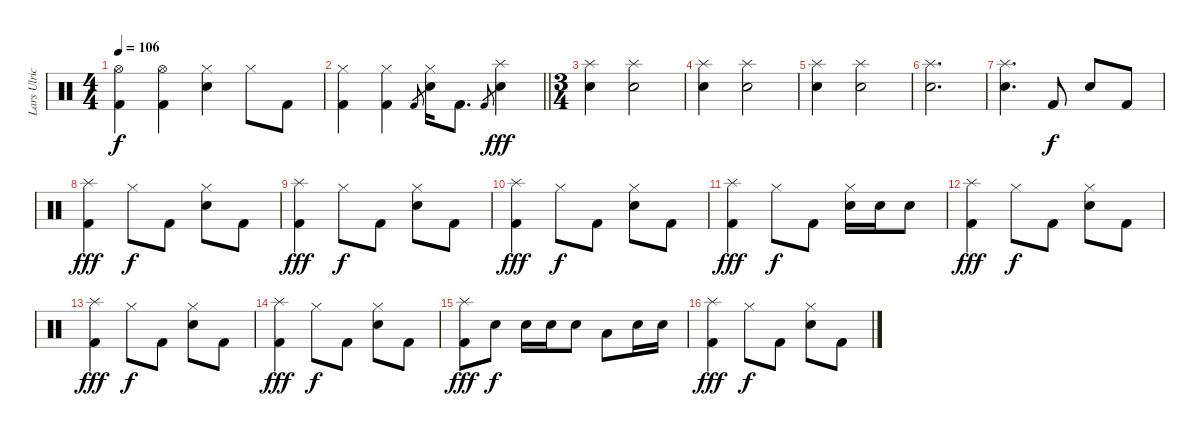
\track ("Lars Ulrich" "Lars Ulric") {instrument percussion}
\staff {score}
\articulation defaults
\ts (4 4)
\tempo 106
\clef neutral
\ks c
("Hi-Hat (open)" "Kick (hit) 2").4{dy f} ("Hi-Hat (open)" "Kick (hit) 2").4 ("Hi-Hat (closed)" "Electric Snare (hit)").4 "Hi-Hat (closed)".8 "Kick (hit) 2".8 |
\barLineRight lightlight
("Hi-Hat (closed)" "Kick (hit) 2").4 ("Hi-Hat (closed)" "Kick (hit) 2").4 "Kick (hit) 2".8{gr} ("Hi-Hat (closed)" "Electric Snare (hit)").16 "Kick (hit) 2".8{d} "Kick (hit) 2".8{gr} ("Splash (hit)" "Electric Snare (hit)").4{dy fff} |
\ts (3 4)
("Splash (hit)" "Electric Snare (hit)").4 ("Splash (hit)" "Electric Snare (hit)").2 |
("Splash (hit)" "Electric Snare (hit)").4 ("Splash (hit)" "Electric Snare (hit)").2 |
("Splash (hit)" "Electric Snare (hit)").4 ("Splash (hit)" "Electric Snare (hit)").2 |
("Splash (hit)" "Electric Snare (hit)").2{d} |
("Splash (hit)" "Electric Snare (hit)").4{d} "Kick (hit) 2".8{dy f} "Electric Snare (hit)".8 "Kick (hit) 2".8 |
("Splash (hit)" "Kick (hit) 2").4{dy fff} "Hi-Hat (closed)".8{dy f} "Kick (hit) 2".8 ("Hi-Hat (closed)" "Electric Snare (hit)").8 "Kick (hit) 2".8 |
("Splash (hit)" "Kick (hit) 2").4{dy fff} "Hi-Hat (closed)".8{dy f} "Kick (hit) 2".8 ("Hi-Hat (closed)" "Electric Snare (hit)").8 "Kick (hit) 2".8 |
("Splash (hit)" "Kick (hit) 2").4{dy fff} "Hi-Hat (closed)".8{dy f} "Kick (hit) 2".8 ("Hi-Hat (closed)" "Electric Snare (hit)").8 "Kick (hit) 2".8 |
("Splash (hit)" "Kick (hit) 2").4{dy fff} "Hi-Hat (closed)".8{dy f} "Kick (hit) 2".8 ("Hi-Hat (closed)" "Electric Snare (hit)").16 "Electric Snare (hit)".16 "Electric Snare (hit)".8 |
("Splash (hit)" "Kick (hit) 2").4{dy fff} "Hi-Hat (closed)".8{dy f} "Kick (hit) 2".8 ("Hi-Hat (closed)" "Electric Snare (hit)").8 "Kick (hit) 2".8 |
("Splash (hit)" "Kick (hit) 2").4{dy fff} "Hi-Hat (closed)".8{dy f} "Kick (hit) 2".8 ("Hi-Hat (closed)" "Electric Snare (hit)").8 "Kick (hit) 2".8 |
("Splash (hit)" "Kick (hit) 2").4{dy fff} "Hi-Hat (closed)".8{dy f} "Kick (hit) 2".8 ("Hi-Hat (closed)" "Electric Snare (hit)").8 "Kick (hit) 2".8 |
("Splash (hit)" "Kick (hit) 2").8{dy fff} "Electric Snare (hit)".8{dy f} "Electric Snare (hit)".16 "Electric Snare (hit)".16 "Electric Snare (hit)".8 "Low Tom (hit)".8 "Electric Snare (hit)".16 "Electric Snare (hit)".16 |
("Splash (hit)" "Kick (hit) 2").4{dy fff} "Hi-Hat (closed)".8{dy f} "Kick (hit) 2".8 ("Hi-Hat (closed)" "Electric Snare (hit)").8 "Kick (hit) 2".8
